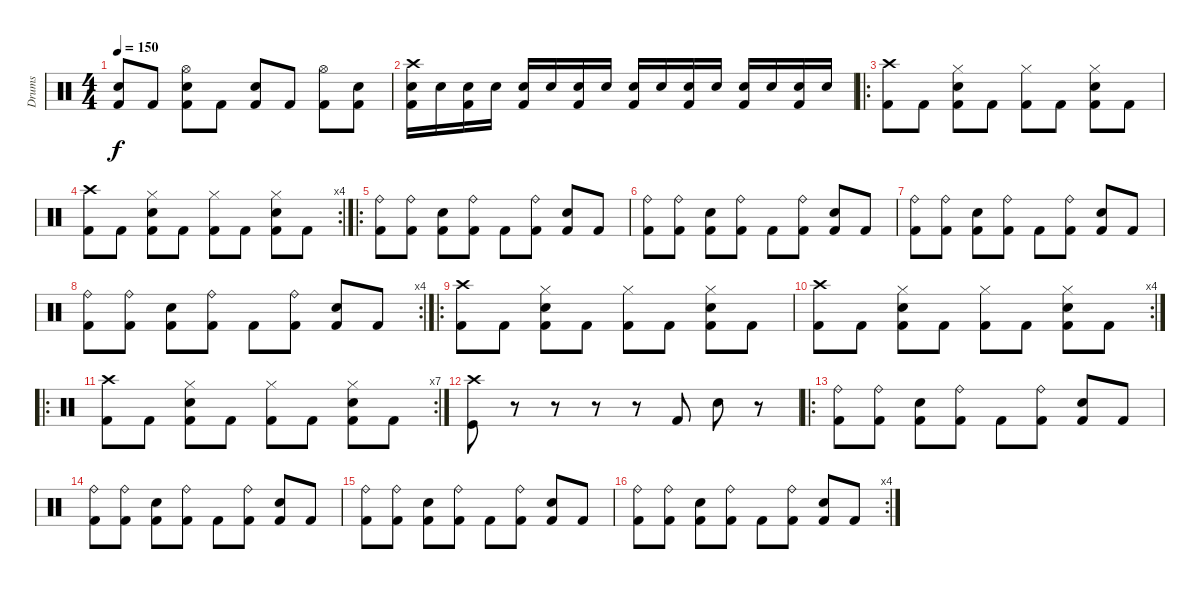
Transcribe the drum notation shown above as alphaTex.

\track ("Drums" "Drums") {instrument percussion}
\staff {score}
\articulation defaults
\ts (4 4)
\tempo 150
\clef neutral
\ks c
("Electric Snare (hit)" "Kick (hit) 2").8{dy f} "Kick (hit) 2".8 ("Electric Snare (hit)" "Hi-Hat (open)" "Kick (hit) 2").8 "Kick (hit) 2".8 ("Electric Snare (hit)" "Kick (hit) 2").8 "Kick (hit) 2".8 ("Hi-Hat (open)" "Kick (hit) 2").8 ("Electric Snare (hit)" "Kick (hit) 2").8 |
("Crash high (hit)" "Electric Snare (hit)" "Kick (hit) 2").16 "Electric Snare (hit)".16 ("Electric Snare (hit)" "Kick (hit) 2").16 "Electric Snare (hit)".16 ("Electric Snare (hit)" "Kick (hit) 2").16 "Electric Snare (hit)".16 ("Electric Snare (hit)" "Kick (hit) 2").16 "Electric Snare (hit)".16 ("Electric Snare (hit)" "Kick (hit) 2").16 "Electric Snare (hit)".16 ("Electric Snare (hit)" "Kick (hit) 2").16 "Electric Snare (hit)".16 ("Electric Snare (hit)" "Kick (hit) 2").16 "Electric Snare (hit)".16 ("Electric Snare (hit)" "Kick (hit) 2").16 "Electric Snare (hit)".16 |
\ro
("Crash high (hit)" "Kick (hit) 2").8 "Kick (hit) 2".8 ("Hi-Hat (closed)" "Electric Snare (hit)" "Kick (hit) 2").8 "Kick (hit) 2".8 ("Hi-Hat (closed)" "Kick (hit) 2").8 "Kick (hit) 2".8 ("Hi-Hat (closed)" "Electric Snare (hit)" "Kick (hit) 2").8 "Kick (hit) 2".8 |
\rc 4
("Crash high (hit)" "Kick (hit) 2").8 "Kick (hit) 2".8 ("Hi-Hat (closed)" "Electric Snare (hit)" "Kick (hit) 2").8 "Kick (hit) 2".8 ("Hi-Hat (closed)" "Kick (hit) 2").8 "Kick (hit) 2".8 ("Hi-Hat (closed)" "Electric Snare (hit)" "Kick (hit) 2").8 "Kick (hit) 2".8 |
\ro
("Ride (bell)" "Kick (hit) 2").8 ("Ride (bell)" "Kick (hit) 2").8 ("Electric Snare (hit)" "Kick (hit) 2").8 ("Ride (bell)" "Kick (hit) 2").8 "Kick (hit) 2".8 ("Ride (bell)" "Kick (hit) 2").8 ("Electric Snare (hit)" "Kick (hit) 2").8 "Kick (hit) 2".8 |
("Ride (bell)" "Kick (hit) 2").8 ("Ride (bell)" "Kick (hit) 2").8 ("Electric Snare (hit)" "Kick (hit) 2").8 ("Ride (bell)" "Kick (hit) 2").8 "Kick (hit) 2".8 ("Ride (bell)" "Kick (hit) 2").8 ("Electric Snare (hit)" "Kick (hit) 2").8 "Kick (hit) 2".8 |
("Ride (bell)" "Kick (hit) 2").8 ("Ride (bell)" "Kick (hit) 2").8 ("Electric Snare (hit)" "Kick (hit) 2").8 ("Ride (bell)" "Kick (hit) 2").8 "Kick (hit) 2".8 ("Ride (bell)" "Kick (hit) 2").8 ("Electric Snare (hit)" "Kick (hit) 2").8 "Kick (hit) 2".8 |
\rc 4
("Ride (bell)" "Kick (hit) 2").8 ("Ride (bell)" "Kick (hit) 2").8 ("Electric Snare (hit)" "Kick (hit) 2").8 ("Ride (bell)" "Kick (hit) 2").8 "Kick (hit) 2".8 ("Ride (bell)" "Kick (hit) 2").8 ("Electric Snare (hit)" "Kick (hit) 2").8 "Kick (hit) 2".8 |
\ro
("Crash high (hit)" "Kick (hit) 2").8 "Kick (hit) 2".8 ("Hi-Hat (closed)" "Electric Snare (hit)" "Kick (hit) 2").8 "Kick (hit) 2".8 ("Hi-Hat (closed)" "Kick (hit) 2").8 "Kick (hit) 2".8 ("Hi-Hat (closed)" "Electric Snare (hit)" "Kick (hit) 2").8 "Kick (hit) 2".8 |
\rc 4
("Crash high (hit)" "Kick (hit) 2").8 "Kick (hit) 2".8 ("Hi-Hat (closed)" "Electric Snare (hit)" "Kick (hit) 2").8 "Kick (hit) 2".8 ("Hi-Hat (closed)" "Kick (hit) 2").8 "Kick (hit) 2".8 ("Hi-Hat (closed)" "Electric Snare (hit)" "Kick (hit) 2").8 "Kick (hit) 2".8 |
\ro
\rc 7
("Crash high (hit)" "Kick (hit) 2").8 "Kick (hit) 2".8 ("Hi-Hat (closed)" "Electric Snare (hit)" "Kick (hit) 2").8 "Kick (hit) 2".8 ("Hi-Hat (closed)" "Kick (hit) 2").8 "Kick (hit) 2".8 ("Hi-Hat (closed)" "Electric Snare (hit)" "Kick (hit) 2").8 "Kick (hit) 2".8 |
("Crash high (hit)" "Kick (hit)").8 r.8 r.8 r.8 r.8 "Kick (hit) 2".8 "Electric Snare (hit)".8 r.8 |
\ro
("Ride (bell)" "Kick (hit) 2").8 ("Ride (bell)" "Kick (hit) 2").8 ("Electric Snare (hit)" "Kick (hit) 2").8 ("Ride (bell)" "Kick (hit) 2").8 "Kick (hit) 2".8 ("Ride (bell)" "Kick (hit) 2").8 ("Electric Snare (hit)" "Kick (hit) 2").8 "Kick (hit) 2".8 |
("Ride (bell)" "Kick (hit) 2").8 ("Ride (bell)" "Kick (hit) 2").8 ("Electric Snare (hit)" "Kick (hit) 2").8 ("Ride (bell)" "Kick (hit) 2").8 "Kick (hit) 2".8 ("Ride (bell)" "Kick (hit) 2").8 ("Electric Snare (hit)" "Kick (hit) 2").8 "Kick (hit) 2".8 |
("Ride (bell)" "Kick (hit) 2").8 ("Ride (bell)" "Kick (hit) 2").8 ("Electric Snare (hit)" "Kick (hit) 2").8 ("Ride (bell)" "Kick (hit) 2").8 "Kick (hit) 2".8 ("Ride (bell)" "Kick (hit) 2").8 ("Electric Snare (hit)" "Kick (hit) 2").8 "Kick (hit) 2".8 |
\rc 4
("Ride (bell)" "Kick (hit) 2").8 ("Ride (bell)" "Kick (hit) 2").8 ("Electric Snare (hit)" "Kick (hit) 2").8 ("Ride (bell)" "Kick (hit) 2").8 "Kick (hit) 2".8 ("Ride (bell)" "Kick (hit) 2").8 ("Electric Snare (hit)" "Kick (hit) 2").8 "Kick (hit) 2".8
